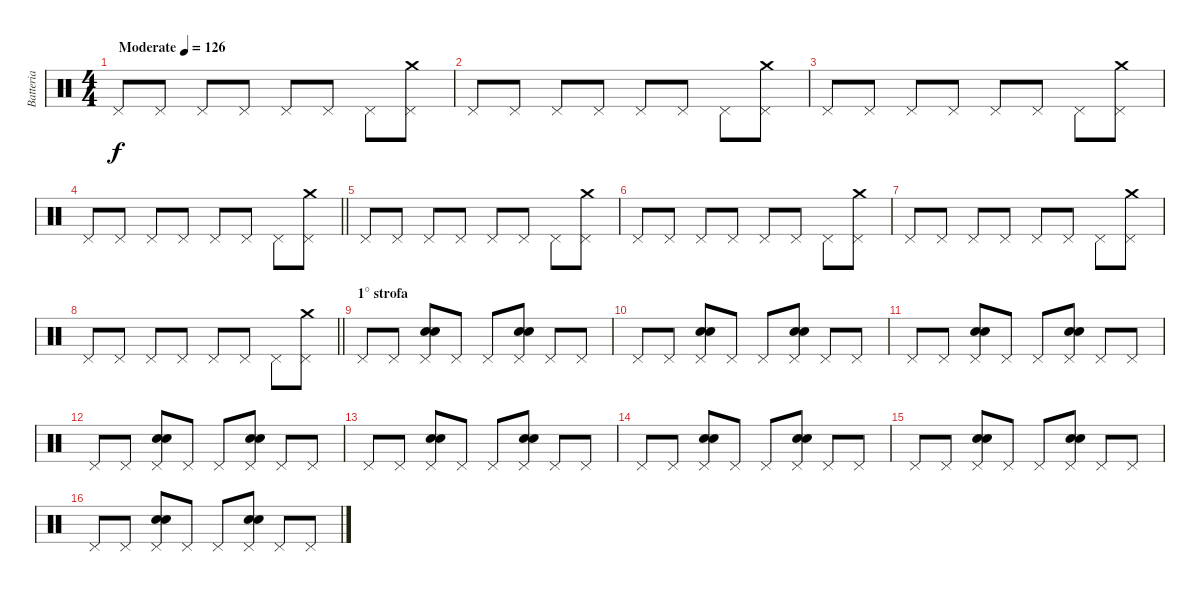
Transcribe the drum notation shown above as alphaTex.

\track ("Batteria" "Batteria") {instrument percussion}
\staff {score}
\articulation defaults
\ts (4 4)
\tempo (126 "Moderate")
\clef neutral
\ks c "Pedal Hi-Hat (hit)".8{dy f} "Pedal Hi-Hat (hit)".8 "Pedal Hi-Hat (hit)".8 "Pedal Hi-Hat (hit)".8 "Pedal Hi-Hat (hit)".8 "Pedal Hi-Hat (hit)".8 "Pedal Hi-Hat (hit)".8
("Pedal Hi-Hat (hit)" "Crash medium (hit)").8 |
"Pedal Hi-Hat (hit)".8 "Pedal Hi-Hat (hit)".8 "Pedal Hi-Hat (hit)".8 "Pedal Hi-Hat (hit)".8 "Pedal Hi-Hat (hit)".8 "Pedal Hi-Hat (hit)".8 "Pedal Hi-Hat (hit)".8 ("Pedal Hi-Hat (hit)" "Crash medium (hit)").8 |
"Pedal Hi-Hat (hit)".8 "Pedal Hi-Hat (hit)".8 "Pedal Hi-Hat (hit)".8 "Pedal Hi-Hat (hit)".8 "Pedal Hi-Hat (hit)".8 "Pedal Hi-Hat (hit)".8 "Pedal Hi-Hat (hit)".8 ("Pedal Hi-Hat (hit)" "Crash medium (hit)").8 |
\barLineRight lightlight "Pedal Hi-Hat (hit)".8 "Pedal Hi-Hat (hit)".8 "Pedal Hi-Hat (hit)".8 "Pedal Hi-Hat (hit)".8 "Pedal Hi-Hat (hit)".8 "Pedal Hi-Hat (hit)".8 "Pedal Hi-Hat (hit)".8
("Pedal Hi-Hat (hit)" "Crash medium (hit)").8 |
"Pedal Hi-Hat (hit)".8 "Pedal Hi-Hat (hit)".8 "Pedal Hi-Hat (hit)".8 "Pedal Hi-Hat (hit)".8 "Pedal Hi-Hat (hit)".8 "Pedal Hi-Hat (hit)".8 "Pedal Hi-Hat (hit)".8 ("Pedal Hi-Hat (hit)" "Crash medium (hit)").8 |
"Pedal Hi-Hat (hit)".8 "Pedal Hi-Hat (hit)".8 "Pedal Hi-Hat (hit)".8 "Pedal Hi-Hat (hit)".8 "Pedal Hi-Hat (hit)".8 "Pedal Hi-Hat (hit)".8 "Pedal Hi-Hat (hit)".8 ("Pedal Hi-Hat (hit)" "Crash medium (hit)").8 |
"Pedal Hi-Hat (hit)".8 "Pedal Hi-Hat (hit)".8 "Pedal Hi-Hat (hit)".8 "Pedal Hi-Hat (hit)".8 "Pedal Hi-Hat (hit)".8 "Pedal Hi-Hat (hit)".8 "Pedal Hi-Hat (hit)".8 ("Pedal Hi-Hat (hit)" "Crash medium (hit)").8 |
\barLineRight lightlight "Pedal Hi-Hat (hit)".8 "Pedal Hi-Hat (hit)".8 "Pedal Hi-Hat (hit)".8 "Pedal Hi-Hat (hit)".8 "Pedal Hi-Hat (hit)".8 "Pedal Hi-Hat (hit)".8 "Pedal Hi-Hat (hit)".8
("Pedal Hi-Hat (hit)" "Crash medium (hit)").8 |
\section ("" "1° strofa")
"Pedal Hi-Hat (hit)".8 "Pedal Hi-Hat (hit)".8 ("Pedal Hi-Hat (hit)" "Snare (hit) 2" "Electric Snare (hit)").8 "Pedal Hi-Hat (hit)".8 "Pedal Hi-Hat (hit)".8 ("Pedal Hi-Hat (hit)" "Snare (hit) 2" "Electric Snare (hit)").8 "Pedal Hi-Hat (hit)".8 "Pedal Hi-Hat (hit)".8 |
"Pedal Hi-Hat (hit)".8 "Pedal Hi-Hat (hit)".8 ("Pedal Hi-Hat (hit)" "Snare (hit) 2" "Electric Snare (hit)").8 "Pedal Hi-Hat (hit)".8 "Pedal Hi-Hat (hit)".8 ("Pedal Hi-Hat (hit)" "Snare (hit) 2" "Electric Snare (hit)").8 "Pedal Hi-Hat (hit)".8 "Pedal Hi-Hat (hit)".8 |
"Pedal Hi-Hat (hit)".8 "Pedal Hi-Hat (hit)".8 ("Pedal Hi-Hat (hit)" "Snare (hit) 2" "Electric Snare (hit)").8 "Pedal Hi-Hat (hit)".8 "Pedal Hi-Hat (hit)".8 ("Pedal Hi-Hat (hit)" "Snare (hit) 2" "Electric Snare (hit)").8 "Pedal Hi-Hat (hit)".8 "Pedal Hi-Hat (hit)".8 |
"Pedal Hi-Hat (hit)".8 "Pedal Hi-Hat (hit)".8 ("Pedal Hi-Hat (hit)" "Snare (hit) 2" "Electric Snare (hit)").8 "Pedal Hi-Hat (hit)".8 "Pedal Hi-Hat (hit)".8 ("Pedal Hi-Hat (hit)" "Snare (hit) 2" "Electric Snare (hit)").8 "Pedal Hi-Hat (hit)".8 "Pedal Hi-Hat (hit)".8 |
"Pedal Hi-Hat (hit)".8 "Pedal Hi-Hat (hit)".8 ("Pedal Hi-Hat (hit)" "Snare (hit) 2" "Electric Snare (hit)").8 "Pedal Hi-Hat (hit)".8 "Pedal Hi-Hat (hit)".8 ("Pedal Hi-Hat (hit)" "Snare (hit) 2" "Electric Snare (hit)").8 "Pedal Hi-Hat (hit)".8 "Pedal Hi-Hat (hit)".8 |
"Pedal Hi-Hat (hit)".8 "Pedal Hi-Hat (hit)".8 ("Pedal Hi-Hat (hit)" "Snare (hit) 2" "Electric Snare (hit)").8 "Pedal Hi-Hat (hit)".8 "Pedal Hi-Hat (hit)".8 ("Pedal Hi-Hat (hit)" "Snare (hit) 2" "Electric Snare (hit)").8 "Pedal Hi-Hat (hit)".8 "Pedal Hi-Hat (hit)".8 |
"Pedal Hi-Hat (hit)".8 "Pedal Hi-Hat (hit)".8 ("Pedal Hi-Hat (hit)" "Snare (hit) 2" "Electric Snare (hit)").8 "Pedal Hi-Hat (hit)".8 "Pedal Hi-Hat (hit)".8 ("Pedal Hi-Hat (hit)" "Snare (hit) 2" "Electric Snare (hit)").8 "Pedal Hi-Hat (hit)".8 "Pedal Hi-Hat (hit)".8 |
"Pedal Hi-Hat (hit)".8 "Pedal Hi-Hat (hit)".8 ("Pedal Hi-Hat (hit)" "Snare (hit) 2" "Electric Snare (hit)").8 "Pedal Hi-Hat (hit)".8 "Pedal Hi-Hat (hit)".8 ("Pedal Hi-Hat (hit)" "Snare (hit) 2" "Electric Snare (hit)").8 "Pedal Hi-Hat (hit)".8 "Pedal Hi-Hat (hit)".8
